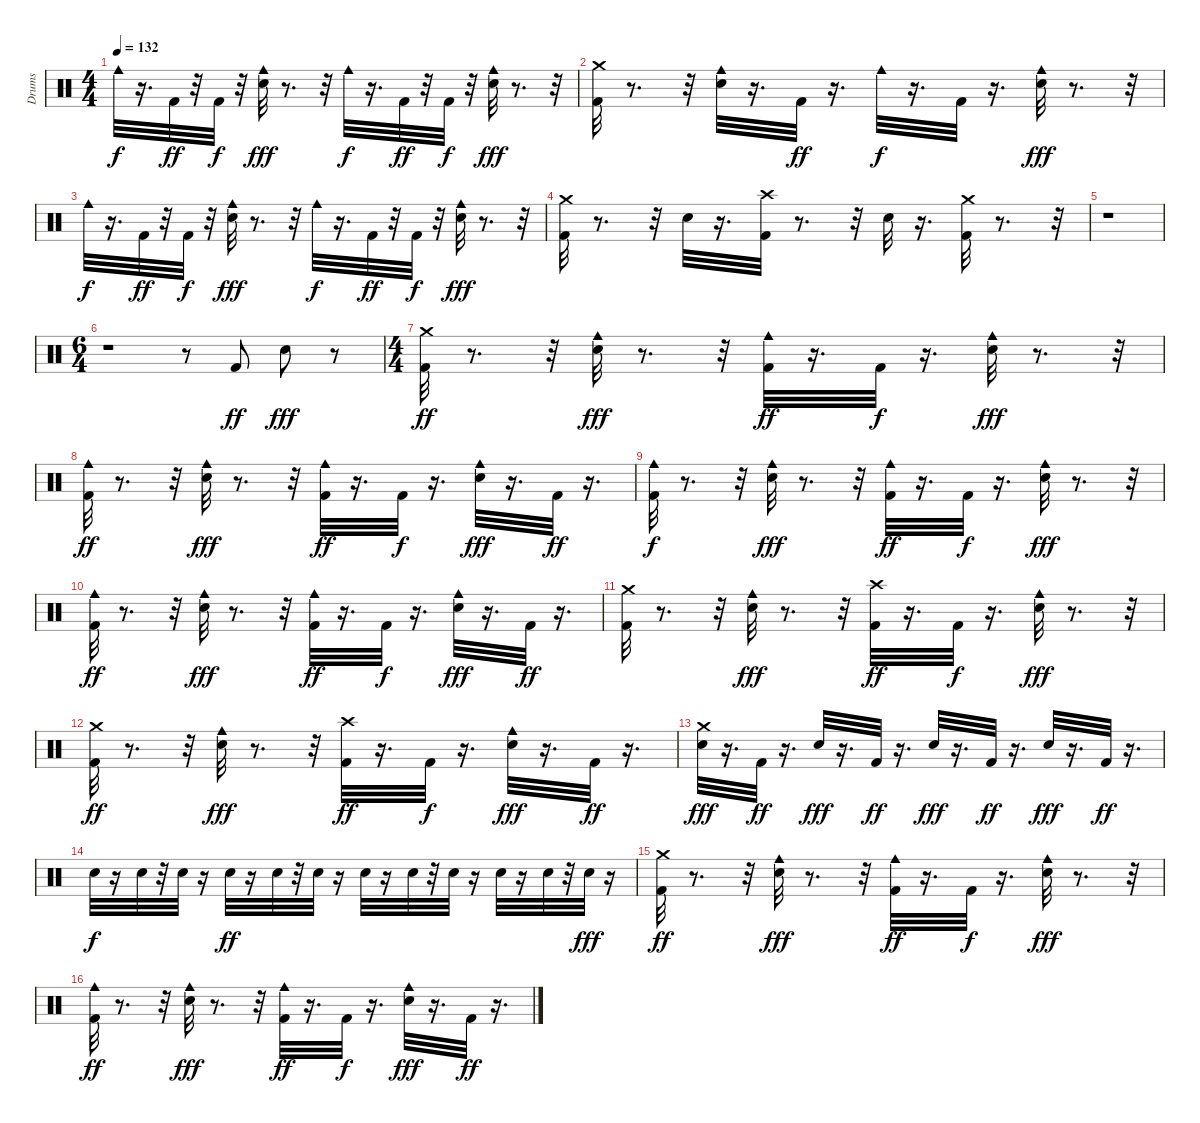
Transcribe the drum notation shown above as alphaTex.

\track ("Drums" "Drums") {instrument percussion}
\staff {score}
\articulation defaults
\ts (4 4)
\tempo 132
\clef neutral
\ks c "Cowbell medium (hit)".32{dy f}
r.16{d} "Kick (hit) 2".32{dy ff} r.32 "Kick (hit) 2".32{dy f} r.32 ("Cowbell medium (hit)" "Snare (hit) 2").32{dy fff} r.8{d} r.32 "Cowbell medium (hit)".32{dy f} r.16{d} "Kick (hit) 2".32{dy ff} r.32 "Kick (hit) 2".32{dy f} r.32 ("Cowbell medium (hit)" "Snare (hit) 2").32{dy fff} r.8{d} r.32 |
("Kick (hit) 2" "Crash medium (hit)").32 r.8{d} r.32 ("Cowbell medium (hit)" "Snare (hit) 2").32 r.16{d} "Kick (hit) 2".32{dy ff} r.16{d} "Cowbell medium (hit)".32{dy f} r.16{d} "Kick (hit) 2".32 r.16{d} ("Cowbell medium (hit)" "Snare (hit) 2").32{dy fff} r.8{d} r.32 |
"Cowbell medium (hit)".32{dy f} r.16{d} "Kick (hit) 2".32{dy ff} r.32 "Kick (hit) 2".32{dy f} r.32 ("Cowbell medium (hit)" "Snare (hit) 2").32{dy fff} r.8{d} r.32 "Cowbell medium (hit)".32{dy f} r.16{d} "Kick (hit) 2".32{dy ff} r.32 "Kick (hit) 2".32{dy f} r.32 ("Cowbell medium (hit)" "Snare (hit) 2").32{dy fff} r.8{d} r.32 |
("Kick (hit) 2" "Crash medium (hit)").32 r.8{d} r.32 "Snare (hit) 2".32 r.16{d} ("Kick (hit) 2" "Crash high (hit)").32 r.8{d} r.32 "Snare (hit) 2".32 r.16{d} ("Kick (hit) 2" "Crash medium (hit)").32 r.8{d} r.32 |
r.1 |
\ts (6 4)
r.1 r.8 "Kick (hit) 2".8{dy ff} "Snare (hit) 2".8{dy fff} r.8 |
\ts (4 4)
("Crash medium (hit)" "Kick (hit) 2").32{dy ff} r.8{d} r.32 ("Snare (hit) 2" "Cowbell medium (hit)").32{dy fff} r.8{d} r.32 ("Kick (hit) 2" "Cowbell medium (hit)").32{dy ff} r.16{d} "Kick (hit) 2".32{dy f} r.16{d} ("Snare (hit) 2" "Cowbell medium (hit)").32{dy fff} r.8{d} r.32 |
("Cowbell medium (hit)" "Kick (hit) 2").32{dy ff} r.8{d} r.32 ("Cowbell medium (hit)" "Snare (hit) 2").32{dy fff} r.8{d} r.32 ("Cowbell medium (hit)" "Kick (hit) 2").32{dy ff} r.16{d} "Kick (hit) 2".32{dy f} r.16{d} ("Cowbell medium (hit)" "Snare (hit) 2").32{dy fff} r.16{d} "Kick (hit) 2".32{dy ff} r.16{d} |
("Kick (hit) 2" "Cowbell medium (hit)").32{dy f} r.8{d} r.32 ("Snare (hit) 2" "Cowbell medium (hit)").32{dy fff} r.8{d} r.32 ("Kick (hit) 2" "Cowbell medium (hit)").32{dy ff} r.16{d} "Kick (hit) 2".32{dy f} r.16{d} ("Snare (hit) 2" "Cowbell medium (hit)").32{dy fff} r.8{d} r.32 |
("Cowbell medium (hit)" "Kick (hit) 2").32{dy ff} r.8{d} r.32 ("Cowbell medium (hit)" "Snare (hit) 2").32{dy fff} r.8{d} r.32 ("Cowbell medium (hit)" "Kick (hit) 2").32{dy ff} r.16{d} "Kick (hit) 2".32{dy f} r.16{d} ("Cowbell medium (hit)" "Snare (hit) 2").32{dy fff} r.16{d} "Kick (hit) 2".32{dy ff} r.16{d} |
("Crash medium (hit)" "Kick (hit) 2").32 r.8{d} r.32 ("Snare (hit) 2" "Cowbell medium (hit)").32{dy fff} r.8{d} r.32 ("Crash high (hit)" "Kick (hit) 2").32{dy ff} r.16{d} "Kick (hit) 2".32{dy f} r.16{d} ("Snare (hit) 2" "Cowbell medium (hit)").32{dy fff} r.8{d} r.32 |
("Crash medium (hit)" "Kick (hit) 2").32{dy ff} r.8{d} r.32 ("Cowbell medium (hit)" "Snare (hit) 2").32{dy fff} r.8{d} r.32 ("Crash high (hit)" "Kick (hit) 2").32{dy ff} r.16{d} "Kick (hit) 2".32{dy f} r.16{d} ("Cowbell medium (hit)" "Snare (hit) 2").32{dy fff} r.16{d} "Kick (hit) 2".32{dy ff} r.16{d} |
("Crash medium (hit)" "Snare (hit) 2").32{dy fff} r.16{d} "Kick (hit) 2".32{dy ff} r.16{d} "Snare (hit) 2".32{dy fff} r.16{d} "Kick (hit) 2".32{dy ff} r.16{d} "Snare (hit) 2".32{dy fff} r.16{d} "Kick (hit) 2".32{dy ff} r.16{d} "Snare (hit) 2".32{dy fff} r.16{d} "Kick (hit) 2".32{dy ff} r.16{d} |
"Snare (hit) 2".32{dy f} r.16 "Snare (hit) 2".32 r.32 "Snare (hit) 2".32 r.16 "Snare (hit) 2".32{dy ff} r.16 "Snare (hit) 2".32 r.32 "Snare (hit) 2".32 r.16 "Snare (hit) 2".32 r.16 "Snare (hit) 2".32 r.32 "Snare (hit) 2".32 r.16 "Snare (hit) 2".32 r.16 "Snare (hit) 2".32 r.32 "Snare (hit) 2".32{dy fff} r.16 |
("Crash medium (hit)" "Kick (hit) 2").32{dy ff} r.8{d} r.32 ("Snare (hit) 2" "Cowbell medium (hit)").32{dy fff} r.8{d} r.32 ("Kick (hit) 2" "Cowbell medium (hit)").32{dy ff} r.16{d} "Kick (hit) 2".32{dy f} r.16{d} ("Snare (hit) 2" "Cowbell medium (hit)").32{dy fff} r.8{d} r.32 |
("Cowbell medium (hit)" "Kick (hit) 2").32{dy ff} r.8{d} r.32 ("Cowbell medium (hit)" "Snare (hit) 2").32{dy fff} r.8{d} r.32 ("Cowbell medium (hit)" "Kick (hit) 2").32{dy ff} r.16{d} "Kick (hit) 2".32{dy f} r.16{d} ("Cowbell medium (hit)" "Snare (hit) 2").32{dy fff} r.16{d} "Kick (hit) 2".32{dy ff} r.16{d}
